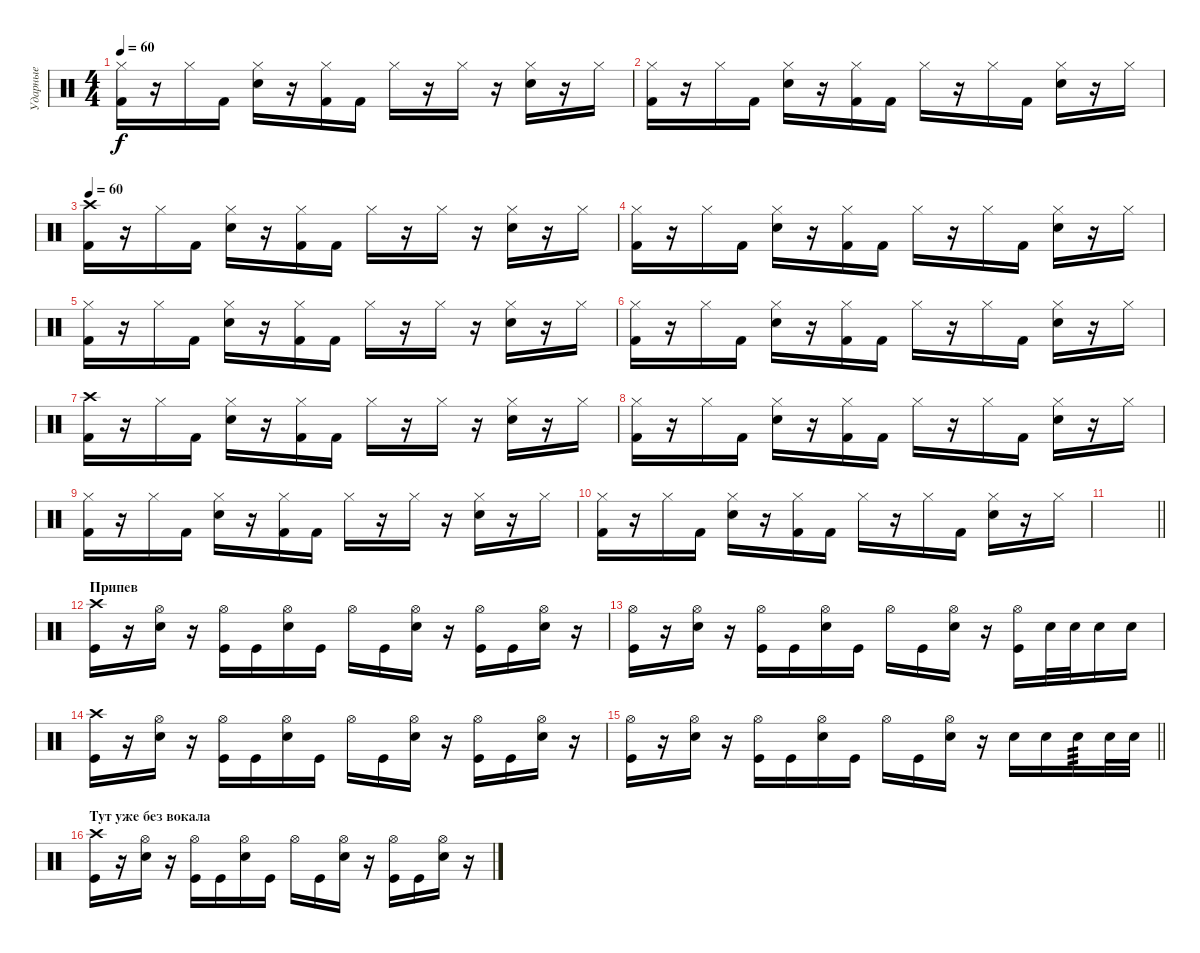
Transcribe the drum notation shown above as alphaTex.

\track ("Ударные" "Ударные") {instrument percussion}
\staff {score}
\articulation defaults
\ts (4 4)
\tempo 60
\clef neutral
\ks c
("Hi-Hat (closed)" "Kick (hit) 2").16{dy f} r.16 "Hi-Hat (closed)".16 "Kick (hit) 2".16 ("Hi-Hat (closed)" "Electric Snare (hit)").16 r.16 ("Hi-Hat (closed)" "Kick (hit) 2").16 "Kick (hit) 2".16 "Hi-Hat (closed)".16 r.16 "Hi-Hat (closed)".16 r.16 ("Hi-Hat (closed)" "Electric Snare (hit)").16 r.16 "Hi-Hat (closed)".16 |
("Hi-Hat (closed)" "Kick (hit) 2").16 r.16 "Hi-Hat (closed)".16 "Kick (hit) 2".16 ("Hi-Hat (closed)" "Electric Snare (hit)").16 r.16 ("Hi-Hat (closed)" "Kick (hit) 2").16 "Kick (hit) 2".16 "Hi-Hat (closed)".16 r.16 "Hi-Hat (closed)".16 "Kick (hit) 2".16 ("Hi-Hat (closed)" "Electric Snare (hit)").16 r.16 "Hi-Hat (closed)".16 |
\tempo 60
("Crash high (hit)" "Kick (hit) 2").16 r.16 "Hi-Hat (closed)".16 "Kick (hit) 2".16 ("Hi-Hat (closed)" "Electric Snare (hit)").16 r.16 ("Hi-Hat (closed)" "Kick (hit) 2").16 "Kick (hit) 2".16 "Hi-Hat (closed)".16 r.16 "Hi-Hat (closed)".16 r.16 ("Hi-Hat (closed)" "Electric Snare (hit)").16 r.16 "Hi-Hat (closed)".16 |
("Hi-Hat (closed)" "Kick (hit) 2").16 r.16 "Hi-Hat (closed)".16 "Kick (hit) 2".16 ("Hi-Hat (closed)" "Electric Snare (hit)").16 r.16 ("Hi-Hat (closed)" "Kick (hit) 2").16 "Kick (hit) 2".16 "Hi-Hat (closed)".16 r.16 "Hi-Hat (closed)".16 "Kick (hit) 2".16 ("Hi-Hat (closed)" "Electric Snare (hit)").16 r.16 "Hi-Hat (closed)".16 |
("Hi-Hat (closed)" "Kick (hit) 2").16 r.16 "Hi-Hat (closed)".16 "Kick (hit) 2".16 ("Hi-Hat (closed)" "Electric Snare (hit)").16 r.16 ("Hi-Hat (closed)" "Kick (hit) 2").16 "Kick (hit) 2".16 "Hi-Hat (closed)".16 r.16 "Hi-Hat (closed)".16 r.16 ("Hi-Hat (closed)" "Electric Snare (hit)").16 r.16 "Hi-Hat (closed)".16 |
("Hi-Hat (closed)" "Kick (hit) 2").16 r.16 "Hi-Hat (closed)".16 "Kick (hit) 2".16 ("Hi-Hat (closed)" "Electric Snare (hit)").16 r.16 ("Hi-Hat (closed)" "Kick (hit) 2").16 "Kick (hit) 2".16 "Hi-Hat (closed)".16 r.16 "Hi-Hat (closed)".16 "Kick (hit) 2".16 ("Hi-Hat (closed)" "Electric Snare (hit)").16 r.16 "Hi-Hat (closed)".16 |
("Crash high (hit)" "Kick (hit) 2").16 r.16 "Hi-Hat (closed)".16 "Kick (hit) 2".16 ("Hi-Hat (closed)" "Electric Snare (hit)").16 r.16 ("Hi-Hat (closed)" "Kick (hit) 2").16 "Kick (hit) 2".16 "Hi-Hat (closed)".16 r.16 "Hi-Hat (closed)".16 r.16 ("Hi-Hat (closed)" "Electric Snare (hit)").16 r.16 "Hi-Hat (closed)".16 |
("Hi-Hat (closed)" "Kick (hit) 2").16 r.16 "Hi-Hat (closed)".16 "Kick (hit) 2".16 ("Hi-Hat (closed)" "Electric Snare (hit)").16 r.16 ("Hi-Hat (closed)" "Kick (hit) 2").16 "Kick (hit) 2".16 "Hi-Hat (closed)".16 r.16 "Hi-Hat (closed)".16 "Kick (hit) 2".16 ("Hi-Hat (closed)" "Electric Snare (hit)").16 r.16 "Hi-Hat (closed)".16 |
("Hi-Hat (closed)" "Kick (hit) 2").16 r.16 "Hi-Hat (closed)".16 "Kick (hit) 2".16 ("Hi-Hat (closed)" "Electric Snare (hit)").16 r.16 ("Hi-Hat (closed)" "Kick (hit) 2").16 "Kick (hit) 2".16 "Hi-Hat (closed)".16 r.16 "Hi-Hat (closed)".16 r.16 ("Hi-Hat (closed)" "Electric Snare (hit)").16 r.16 "Hi-Hat (closed)".16 |
("Hi-Hat (closed)" "Kick (hit) 2").16 r.16 "Hi-Hat (closed)".16 "Kick (hit) 2".16 ("Hi-Hat (closed)" "Electric Snare (hit)").16 r.16 ("Hi-Hat (closed)" "Kick (hit) 2").16 "Kick (hit) 2".16 "Hi-Hat (closed)".16 r.16 "Hi-Hat (closed)".16 "Kick (hit) 2".16 ("Hi-Hat (closed)" "Electric Snare (hit)").16 r.16 "Hi-Hat (closed)".16 |
\barLineRight lightlight
|
\section ("" "Припев")
("Crash high (hit)" "Kick (hit)").16 r.16 ("Hi-Hat (open)" "Electric Snare (hit)").16 r.16 ("Hi-Hat (open)" "Kick (hit)").16 "Kick (hit)".16 ("Hi-Hat (open)" "Electric Snare (hit)").16 "Kick (hit)".16 "Hi-Hat (open)".16 "Kick (hit)".16 ("Hi-Hat (open)" "Electric Snare (hit)").16 r.16 ("Hi-Hat (open)" "Kick (hit)").16 "Kick (hit)".16 ("Hi-Hat (open)" "Electric Snare (hit)").16 r.16 |
("Hi-Hat (open)" "Kick (hit)").16 r.16 ("Hi-Hat (open)" "Electric Snare (hit)").16 r.16 ("Hi-Hat (open)" "Kick (hit)").16 "Kick (hit)".16 ("Hi-Hat (open)" "Electric Snare (hit)").16 "Kick (hit)".16 "Hi-Hat (open)".16 "Kick (hit)".16 ("Hi-Hat (open)" "Electric Snare (hit)").16 r.16 ("Hi-Hat (open)" "Kick (hit)").16 "Electric Snare (hit)".32 "Electric Snare (hit)".32 "Electric Snare (hit)".16 "Electric Snare (hit)".16 |
("Crash high (hit)" "Kick (hit)").16 r.16 ("Hi-Hat (open)" "Electric Snare (hit)").16 r.16 ("Hi-Hat (open)" "Kick (hit)").16 "Kick (hit)".16 ("Hi-Hat (open)" "Electric Snare (hit)").16 "Kick (hit)".16 "Hi-Hat (open)".16 "Kick (hit)".16 ("Hi-Hat (open)" "Electric Snare (hit)").16 r.16 ("Hi-Hat (open)" "Kick (hit)").16 "Kick (hit)".16 ("Hi-Hat (open)" "Electric Snare (hit)").16 r.16 |
\barLineRight lightlight
("Hi-Hat (open)" "Kick (hit)").16 r.16 ("Hi-Hat (open)" "Electric Snare (hit)").16 r.16 ("Hi-Hat (open)" "Kick (hit)").16 "Kick (hit)".16 ("Hi-Hat (open)" "Electric Snare (hit)").16 "Kick (hit)".16 "Hi-Hat (open)".16 "Kick (hit)".16 ("Hi-Hat (open)" "Electric Snare (hit)").16 r.16 "Electric Snare (hit)".16 "Electric Snare (hit)".16 "Electric Snare (hit)".16{tp 3} "Electric Snare (hit)".32 "Electric Snare (hit)".32 |
\section ("" "Тут уже без вокала")
("Crash high (hit)" "Kick (hit)").16 r.16 ("Hi-Hat (open)" "Electric Snare (hit)").16 r.16 ("Hi-Hat (open)" "Kick (hit)").16 "Kick (hit)".16 ("Hi-Hat (open)" "Electric Snare (hit)").16 "Kick (hit)".16 "Hi-Hat (open)".16 "Kick (hit)".16 ("Hi-Hat (open)" "Electric Snare (hit)").16 r.16 ("Hi-Hat (open)" "Kick (hit)").16 "Kick (hit)".16 ("Hi-Hat (open)" "Electric Snare (hit)").16 r.16
